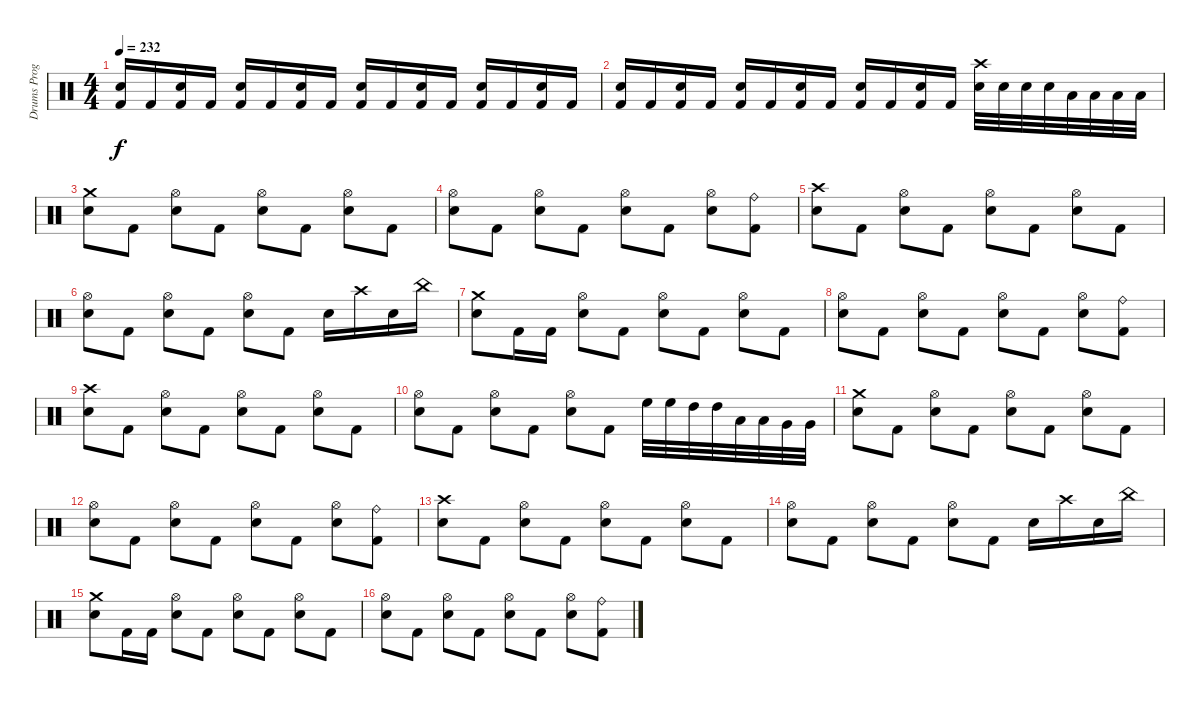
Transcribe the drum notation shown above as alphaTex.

\track ("Drums Programming" "Drums Prog") {instrument percussion}
\staff {score}
\articulation defaults
\ts (4 4)
\tempo 232
\clef neutral
\ks c
("Electric Snare (hit)" "Kick (hit) 2").16{dy f} "Kick (hit) 2".16 ("Electric Snare (hit)" "Kick (hit) 2").16 "Kick (hit) 2".16 ("Electric Snare (hit)" "Kick (hit) 2").16 "Kick (hit) 2".16 ("Electric Snare (hit)" "Kick (hit) 2").16 "Kick (hit) 2".16 ("Electric Snare (hit)" "Kick (hit) 2").16 "Kick (hit) 2".16 ("Electric Snare (hit)" "Kick (hit) 2").16 "Kick (hit) 2".16 ("Electric Snare (hit)" "Kick (hit) 2").16 "Kick (hit) 2".16 ("Electric Snare (hit)" "Kick (hit) 2").16 "Kick (hit) 2".16 |
("Electric Snare (hit)" "Kick (hit) 2").16 "Kick (hit) 2".16 ("Electric Snare (hit)" "Kick (hit) 2").16 "Kick (hit) 2".16 ("Electric Snare (hit)" "Kick (hit) 2").16 "Kick (hit) 2".16 ("Electric Snare (hit)" "Kick (hit) 2").16 "Kick (hit) 2".16 ("Electric Snare (hit)" "Kick (hit) 2").16 "Kick (hit) 2".16 ("Electric Snare (hit)" "Kick (hit) 2").16 "Kick (hit) 2".16 ("Crash high (hit)" "Electric Snare (hit)").32 "Electric Snare (hit)".32 "Electric Snare (hit)".32 "Electric Snare (hit)".32 "Low Floor Tom (hit)".32 "Low Floor Tom (hit)".32 "Low Floor Tom (hit)".32 "Low Floor Tom (hit)".32 |
("Crash medium (hit)" "Electric Snare (hit)").8 "Kick (hit) 2".8 ("Hi-Hat (open)" "Electric Snare (hit)").8 "Kick (hit) 2".8 ("Hi-Hat (open)" "Electric Snare (hit)").8 "Kick (hit) 2".8 ("Hi-Hat (open)" "Electric Snare (hit)").8 "Kick (hit) 2".8 |
("Hi-Hat (open)" "Electric Snare (hit)").8 "Kick (hit) 2".8 ("Hi-Hat (open)" "Electric Snare (hit)").8 "Kick (hit) 2".8 ("Hi-Hat (open)" "Electric Snare (hit)").8 "Kick (hit) 2".8 ("Hi-Hat (open)" "Electric Snare (hit)").8 ("Ride (bell)" "Kick (hit) 2").8 |
("Crash high (hit)" "Electric Snare (hit)").8 "Kick (hit) 2".8 ("Hi-Hat (open)" "Electric Snare (hit)").8 "Kick (hit) 2".8 ("Hi-Hat (open)" "Electric Snare (hit)").8 "Kick (hit) 2".8 ("Hi-Hat (open)" "Electric Snare (hit)").8 "Kick (hit) 2".8 |
("Hi-Hat (open)" "Electric Snare (hit)").8 "Kick (hit) 2".8 ("Hi-Hat (open)" "Electric Snare (hit)").8 "Kick (hit) 2".8 ("Hi-Hat (open)" "Electric Snare (hit)").8 "Kick (hit) 2".8 "Electric Snare (hit)".16 "Crash high (hit)".16 "Electric Snare (hit)".16 "China (hit)".16 |
("Crash medium (hit)" "Electric Snare (hit)").8 "Kick (hit) 2".16 "Kick (hit) 2".16 ("Hi-Hat (open)" "Electric Snare (hit)").8 "Kick (hit) 2".8 ("Hi-Hat (open)" "Electric Snare (hit)").8 "Kick (hit) 2".8 ("Hi-Hat (open)" "Electric Snare (hit)").8 "Kick (hit) 2".8 |
("Hi-Hat (open)" "Electric Snare (hit)").8 "Kick (hit) 2".8 ("Hi-Hat (open)" "Electric Snare (hit)").8 "Kick (hit) 2".8 ("Hi-Hat (open)" "Electric Snare (hit)").8 "Kick (hit) 2".8 ("Hi-Hat (open)" "Electric Snare (hit)").8 ("Ride (bell)" "Kick (hit) 2").8 |
("Crash high (hit)" "Electric Snare (hit)").8 "Kick (hit) 2".8 ("Hi-Hat (open)" "Electric Snare (hit)").8 "Kick (hit) 2".8 ("Hi-Hat (open)" "Electric Snare (hit)").8 "Kick (hit) 2".8 ("Hi-Hat (open)" "Electric Snare (hit)").8 "Kick (hit) 2".8 |
("Hi-Hat (open)" "Electric Snare (hit)").8 "Kick (hit) 2".8 ("Hi-Hat (open)" "Electric Snare (hit)").8 "Kick (hit) 2".8 ("Hi-Hat (open)" "Electric Snare (hit)").8 "Kick (hit) 2".8 "High Floor Tom (hit)".32 "High Floor Tom (hit)".32 "High Tom (hit)".32 "High Tom (hit)".32 "Low Floor Tom (hit)".32 "Low Floor Tom (hit)".32 "Very Low Tom (hit)".32 "Very Low Tom (hit)".32 |
("Crash medium (hit)" "Electric Snare (hit)").8 "Kick (hit) 2".8 ("Hi-Hat (open)" "Electric Snare (hit)").8 "Kick (hit) 2".8 ("Hi-Hat (open)" "Electric Snare (hit)").8 "Kick (hit) 2".8 ("Hi-Hat (open)" "Electric Snare (hit)").8 "Kick (hit) 2".8 |
("Hi-Hat (open)" "Electric Snare (hit)").8 "Kick (hit) 2".8 ("Hi-Hat (open)" "Electric Snare (hit)").8 "Kick (hit) 2".8 ("Hi-Hat (open)" "Electric Snare (hit)").8 "Kick (hit) 2".8 ("Hi-Hat (open)" "Electric Snare (hit)").8 ("Ride (bell)" "Kick (hit) 2").8 |
("Crash high (hit)" "Electric Snare (hit)").8 "Kick (hit) 2".8 ("Hi-Hat (open)" "Electric Snare (hit)").8 "Kick (hit) 2".8 ("Hi-Hat (open)" "Electric Snare (hit)").8 "Kick (hit) 2".8 ("Hi-Hat (open)" "Electric Snare (hit)").8 "Kick (hit) 2".8 |
("Hi-Hat (open)" "Electric Snare (hit)").8 "Kick (hit) 2".8 ("Hi-Hat (open)" "Electric Snare (hit)").8 "Kick (hit) 2".8 ("Hi-Hat (open)" "Electric Snare (hit)").8 "Kick (hit) 2".8 "Electric Snare (hit)".16 "Crash high (hit)".16 "Electric Snare (hit)".16 "China (hit)".16 |
("Crash medium (hit)" "Electric Snare (hit)").8 "Kick (hit) 2".16 "Kick (hit) 2".16 ("Hi-Hat (open)" "Electric Snare (hit)").8 "Kick (hit) 2".8 ("Hi-Hat (open)" "Electric Snare (hit)").8 "Kick (hit) 2".8 ("Hi-Hat (open)" "Electric Snare (hit)").8 "Kick (hit) 2".8 |
("Hi-Hat (open)" "Electric Snare (hit)").8 "Kick (hit) 2".8 ("Hi-Hat (open)" "Electric Snare (hit)").8 "Kick (hit) 2".8 ("Hi-Hat (open)" "Electric Snare (hit)").8 "Kick (hit) 2".8 ("Hi-Hat (open)" "Electric Snare (hit)").8 ("Ride (bell)" "Kick (hit) 2").8
